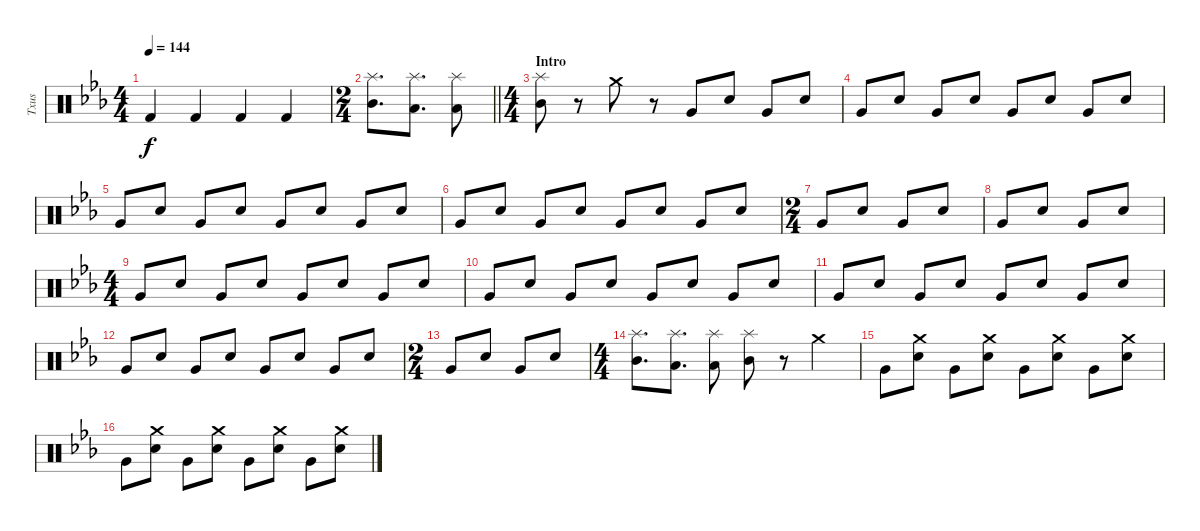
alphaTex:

\track ("Txus" "Txus") {instrument percussion}
\staff {score}
\articulation defaults
\ts (4 4)
\tempo 144
\clef neutral
\ks eb "Kick (hit) 2".4{dy f} "Kick (hit) 2".4 "Kick (hit) 2".4 "Kick (hit) 2".4
|
\ts (2 4)
\barLineRight lightlight
("Splash (hit)" "Mid Tom (hit)").8{d} ("Splash (hit)" "Low Floor Tom (hit)").8{d} ("Splash (hit)" "Low Tom (hit)").8 |
\ts (4 4)
\section ("" "Intro")
("Splash (hit)" "Mid Tom (hit)").8 r.8 "Crash medium (hit)".8 r.8 "Very Low Tom (hit)".8 "Electric Snare (hit)".8 "Very Low Tom (hit)".8 "Electric Snare (hit)".8 |
"Very Low Tom (hit)".8 "Electric Snare (hit)".8 "Very Low Tom (hit)".8 "Electric Snare (hit)".8 "Very Low Tom (hit)".8 "Electric Snare (hit)".8 "Very Low Tom (hit)".8 "Electric Snare (hit)".8 |
"Very Low Tom (hit)".8 "Electric Snare (hit)".8 "Very Low Tom (hit)".8 "Electric Snare (hit)".8 "Very Low Tom (hit)".8 "Electric Snare (hit)".8 "Very Low Tom (hit)".8 "Electric Snare (hit)".8 |
"Very Low Tom (hit)".8 "Electric Snare (hit)".8 "Very Low Tom (hit)".8 "Electric Snare (hit)".8 "Very Low Tom (hit)".8 "Electric Snare (hit)".8 "Very Low Tom (hit)".8 "Electric Snare (hit)".8 |
\ts (2 4)
"Very Low Tom (hit)".8 "Electric Snare (hit)".8 "Very Low Tom (hit)".8 "Electric Snare (hit)".8 |
"Very Low Tom (hit)".8 "Electric Snare (hit)".8 "Very Low Tom (hit)".8 "Electric Snare (hit)".8 |
\ts (4 4)
"Very Low Tom (hit)".8 "Electric Snare (hit)".8 "Very Low Tom (hit)".8 "Electric Snare (hit)".8 "Very Low Tom (hit)".8 "Electric Snare (hit)".8 "Very Low Tom (hit)".8 "Electric Snare (hit)".8 |
"Very Low Tom (hit)".8 "Electric Snare (hit)".8 "Very Low Tom (hit)".8 "Electric Snare (hit)".8 "Very Low Tom (hit)".8 "Electric Snare (hit)".8 "Very Low Tom (hit)".8 "Electric Snare (hit)".8 |
"Very Low Tom (hit)".8 "Electric Snare (hit)".8 "Very Low Tom (hit)".8 "Electric Snare (hit)".8 "Very Low Tom (hit)".8 "Electric Snare (hit)".8 "Very Low Tom (hit)".8 "Electric Snare (hit)".8 |
"Very Low Tom (hit)".8 "Electric Snare (hit)".8 "Very Low Tom (hit)".8 "Electric Snare (hit)".8 "Very Low Tom (hit)".8 "Electric Snare (hit)".8 "Very Low Tom (hit)".8 "Electric Snare (hit)".8 |
\ts (2 4)
"Very Low Tom (hit)".8 "Electric Snare (hit)".8 "Very Low Tom (hit)".8 "Electric Snare (hit)".8 |
\ts (4 4)
("Splash (hit)" "Mid Tom (hit)").8{d} ("Splash (hit)" "Low Floor Tom (hit)").8{d} ("Splash (hit)" "Low Tom (hit)").8 ("Splash (hit)" "Mid Tom (hit)").8 r.8 "Crash medium (hit)".4 |
"Very Low Tom (hit)".8 ("Electric Snare (hit)" "Crash medium (hit)").8 "Very Low Tom (hit)".8 ("Electric Snare (hit)" "Crash medium (hit)").8 "Very Low Tom (hit)".8 ("Electric Snare (hit)" "Crash medium (hit)").8 "Very Low Tom (hit)".8 ("Electric Snare (hit)" "Crash medium (hit)").8 |
"Very Low Tom (hit)".8 ("Electric Snare (hit)" "Crash medium (hit)").8 "Very Low Tom (hit)".8 ("Electric Snare (hit)" "Crash medium (hit)").8 "Very Low Tom (hit)".8 ("Electric Snare (hit)" "Crash medium (hit)").8 "Very Low Tom (hit)".8 ("Electric Snare (hit)" "Crash medium (hit)").8
